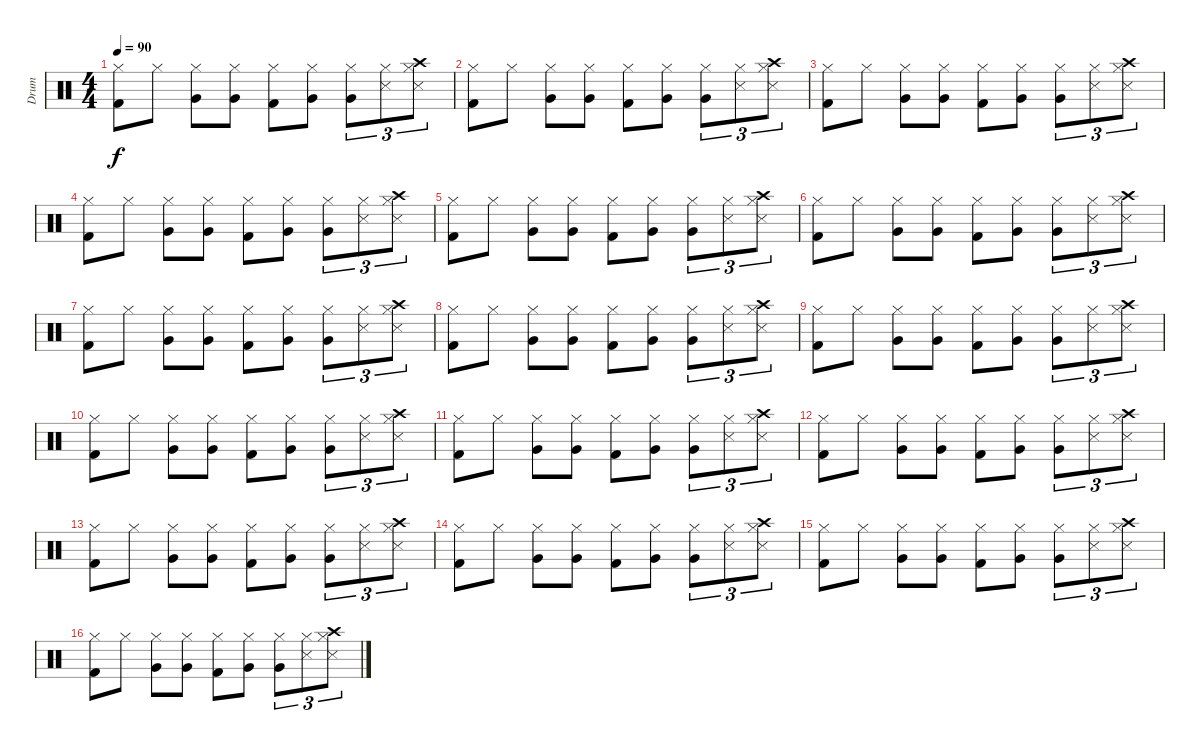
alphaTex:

\track ("Drum" "Drum") {instrument percussion}
\staff {score}
\articulation defaults
\ts (4 4)
\tempo 90
\clef neutral
\ks c
("Kick (hit) 2" "Hi-Hat (closed)").8{dy f} "Hi-Hat (closed)".8 ("Very Low Tom (hit)" "Hi-Hat (closed)").8 ("Very Low Tom (hit)" "Hi-Hat (closed)").8 ("Kick (hit) 2" "Hi-Hat (closed)").8 ("Very Low Tom (hit)" "Hi-Hat (closed)").8 ("Very Low Tom (hit)" "Hi-Hat (closed)").8{tu (3 2)} ("Snare (side stick) 3" "Hi-Hat (closed)").8{tu (3 2)} ("Crash high (hit)" "Snare (side stick) 3" "Hi-Hat (closed)").8{tu (3 2)} |
("Kick (hit) 2" "Hi-Hat (closed)").8 "Hi-Hat (closed)".8 ("Very Low Tom (hit)" "Hi-Hat (closed)").8 ("Very Low Tom (hit)" "Hi-Hat (closed)").8 ("Kick (hit) 2" "Hi-Hat (closed)").8 ("Very Low Tom (hit)" "Hi-Hat (closed)").8 ("Very Low Tom (hit)" "Hi-Hat (closed)").8{tu (3 2)} ("Snare (side stick) 3" "Hi-Hat (closed)").8{tu (3 2)} ("Crash high (hit)" "Snare (side stick) 3" "Hi-Hat (closed)").8{tu (3 2)} |
("Kick (hit) 2" "Hi-Hat (closed)").8 "Hi-Hat (closed)".8 ("Very Low Tom (hit)" "Hi-Hat (closed)").8 ("Very Low Tom (hit)" "Hi-Hat (closed)").8 ("Kick (hit) 2" "Hi-Hat (closed)").8 ("Very Low Tom (hit)" "Hi-Hat (closed)").8 ("Very Low Tom (hit)" "Hi-Hat (closed)").8{tu (3 2)} ("Snare (side stick) 3" "Hi-Hat (closed)").8{tu (3 2)} ("Crash high (hit)" "Snare (side stick) 3" "Hi-Hat (closed)").8{tu (3 2)} |
("Kick (hit) 2" "Hi-Hat (closed)").8 "Hi-Hat (closed)".8 ("Very Low Tom (hit)" "Hi-Hat (closed)").8 ("Very Low Tom (hit)" "Hi-Hat (closed)").8 ("Kick (hit) 2" "Hi-Hat (closed)").8 ("Very Low Tom (hit)" "Hi-Hat (closed)").8 ("Very Low Tom (hit)" "Hi-Hat (closed)").8{tu (3 2)} ("Snare (side stick) 3" "Hi-Hat (closed)").8{tu (3 2)} ("Crash high (hit)" "Snare (side stick) 3" "Hi-Hat (closed)").8{tu (3 2)} |
("Kick (hit) 2" "Hi-Hat (closed)").8 "Hi-Hat (closed)".8 ("Very Low Tom (hit)" "Hi-Hat (closed)").8 ("Very Low Tom (hit)" "Hi-Hat (closed)").8 ("Kick (hit) 2" "Hi-Hat (closed)").8 ("Very Low Tom (hit)" "Hi-Hat (closed)").8 ("Very Low Tom (hit)" "Hi-Hat (closed)").8{tu (3 2)} ("Snare (side stick) 3" "Hi-Hat (closed)").8{tu (3 2)} ("Crash high (hit)" "Snare (side stick) 3" "Hi-Hat (closed)").8{tu (3 2)} |
("Kick (hit) 2" "Hi-Hat (closed)").8 "Hi-Hat (closed)".8 ("Very Low Tom (hit)" "Hi-Hat (closed)").8 ("Very Low Tom (hit)" "Hi-Hat (closed)").8 ("Kick (hit) 2" "Hi-Hat (closed)").8 ("Very Low Tom (hit)" "Hi-Hat (closed)").8 ("Very Low Tom (hit)" "Hi-Hat (closed)").8{tu (3 2)} ("Snare (side stick) 3" "Hi-Hat (closed)").8{tu (3 2)} ("Crash high (hit)" "Snare (side stick) 3" "Hi-Hat (closed)").8{tu (3 2)} |
("Kick (hit) 2" "Hi-Hat (closed)").8 "Hi-Hat (closed)".8 ("Very Low Tom (hit)" "Hi-Hat (closed)").8 ("Very Low Tom (hit)" "Hi-Hat (closed)").8 ("Kick (hit) 2" "Hi-Hat (closed)").8 ("Very Low Tom (hit)" "Hi-Hat (closed)").8 ("Very Low Tom (hit)" "Hi-Hat (closed)").8{tu (3 2)} ("Snare (side stick) 3" "Hi-Hat (closed)").8{tu (3 2)} ("Crash high (hit)" "Snare (side stick) 3" "Hi-Hat (closed)").8{tu (3 2)} |
("Kick (hit) 2" "Hi-Hat (closed)").8 "Hi-Hat (closed)".8 ("Very Low Tom (hit)" "Hi-Hat (closed)").8 ("Very Low Tom (hit)" "Hi-Hat (closed)").8 ("Kick (hit) 2" "Hi-Hat (closed)").8 ("Very Low Tom (hit)" "Hi-Hat (closed)").8 ("Very Low Tom (hit)" "Hi-Hat (closed)").8{tu (3 2)} ("Snare (side stick) 3" "Hi-Hat (closed)").8{tu (3 2)} ("Crash high (hit)" "Snare (side stick) 3" "Hi-Hat (closed)").8{tu (3 2)} |
("Kick (hit) 2" "Hi-Hat (closed)").8 "Hi-Hat (closed)".8 ("Very Low Tom (hit)" "Hi-Hat (closed)").8 ("Very Low Tom (hit)" "Hi-Hat (closed)").8 ("Kick (hit) 2" "Hi-Hat (closed)").8 ("Very Low Tom (hit)" "Hi-Hat (closed)").8 ("Very Low Tom (hit)" "Hi-Hat (closed)").8{tu (3 2)} ("Snare (side stick) 3" "Hi-Hat (closed)").8{tu (3 2)} ("Crash high (hit)" "Snare (side stick) 3" "Hi-Hat (closed)").8{tu (3 2)} |
("Kick (hit) 2" "Hi-Hat (closed)").8 "Hi-Hat (closed)".8 ("Very Low Tom (hit)" "Hi-Hat (closed)").8 ("Very Low Tom (hit)" "Hi-Hat (closed)").8 ("Kick (hit) 2" "Hi-Hat (closed)").8 ("Very Low Tom (hit)" "Hi-Hat (closed)").8 ("Very Low Tom (hit)" "Hi-Hat (closed)").8{tu (3 2)} ("Snare (side stick) 3" "Hi-Hat (closed)").8{tu (3 2)} ("Crash high (hit)" "Snare (side stick) 3" "Hi-Hat (closed)").8{tu (3 2)} |
("Kick (hit) 2" "Hi-Hat (closed)").8 "Hi-Hat (closed)".8 ("Very Low Tom (hit)" "Hi-Hat (closed)").8 ("Very Low Tom (hit)" "Hi-Hat (closed)").8 ("Kick (hit) 2" "Hi-Hat (closed)").8 ("Very Low Tom (hit)" "Hi-Hat (closed)").8 ("Very Low Tom (hit)" "Hi-Hat (closed)").8{tu (3 2)} ("Snare (side stick) 3" "Hi-Hat (closed)").8{tu (3 2)} ("Crash high (hit)" "Snare (side stick) 3" "Hi-Hat (closed)").8{tu (3 2)} |
("Kick (hit) 2" "Hi-Hat (closed)").8 "Hi-Hat (closed)".8 ("Very Low Tom (hit)" "Hi-Hat (closed)").8 ("Very Low Tom (hit)" "Hi-Hat (closed)").8 ("Kick (hit) 2" "Hi-Hat (closed)").8 ("Very Low Tom (hit)" "Hi-Hat (closed)").8 ("Very Low Tom (hit)" "Hi-Hat (closed)").8{tu (3 2)} ("Snare (side stick) 3" "Hi-Hat (closed)").8{tu (3 2)} ("Crash high (hit)" "Snare (side stick) 3" "Hi-Hat (closed)").8{tu (3 2)} |
("Kick (hit) 2" "Hi-Hat (closed)").8 "Hi-Hat (closed)".8 ("Very Low Tom (hit)" "Hi-Hat (closed)").8 ("Very Low Tom (hit)" "Hi-Hat (closed)").8 ("Kick (hit) 2" "Hi-Hat (closed)").8 ("Very Low Tom (hit)" "Hi-Hat (closed)").8 ("Very Low Tom (hit)" "Hi-Hat (closed)").8{tu (3 2)} ("Snare (side stick) 3" "Hi-Hat (closed)").8{tu (3 2)} ("Crash high (hit)" "Snare (side stick) 3" "Hi-Hat (closed)").8{tu (3 2)} |
("Kick (hit) 2" "Hi-Hat (closed)").8 "Hi-Hat (closed)".8 ("Very Low Tom (hit)" "Hi-Hat (closed)").8 ("Very Low Tom (hit)" "Hi-Hat (closed)").8 ("Kick (hit) 2" "Hi-Hat (closed)").8 ("Very Low Tom (hit)" "Hi-Hat (closed)").8 ("Very Low Tom (hit)" "Hi-Hat (closed)").8{tu (3 2)} ("Snare (side stick) 3" "Hi-Hat (closed)").8{tu (3 2)} ("Crash high (hit)" "Snare (side stick) 3" "Hi-Hat (closed)").8{tu (3 2)} |
("Kick (hit) 2" "Hi-Hat (closed)").8 "Hi-Hat (closed)".8 ("Very Low Tom (hit)" "Hi-Hat (closed)").8 ("Very Low Tom (hit)" "Hi-Hat (closed)").8 ("Kick (hit) 2" "Hi-Hat (closed)").8 ("Very Low Tom (hit)" "Hi-Hat (closed)").8 ("Very Low Tom (hit)" "Hi-Hat (closed)").8{tu (3 2)} ("Snare (side stick) 3" "Hi-Hat (closed)").8{tu (3 2)} ("Crash high (hit)" "Snare (side stick) 3" "Hi-Hat (closed)").8{tu (3 2)} |
("Kick (hit) 2" "Hi-Hat (closed)").8 "Hi-Hat (closed)".8 ("Very Low Tom (hit)" "Hi-Hat (closed)").8 ("Very Low Tom (hit)" "Hi-Hat (closed)").8 ("Kick (hit) 2" "Hi-Hat (closed)").8 ("Very Low Tom (hit)" "Hi-Hat (closed)").8 ("Very Low Tom (hit)" "Hi-Hat (closed)").8{tu (3 2)} ("Snare (side stick) 3" "Hi-Hat (closed)").8{tu (3 2)} ("Crash high (hit)" "Snare (side stick) 3" "Hi-Hat (closed)").8{tu (3 2)}
